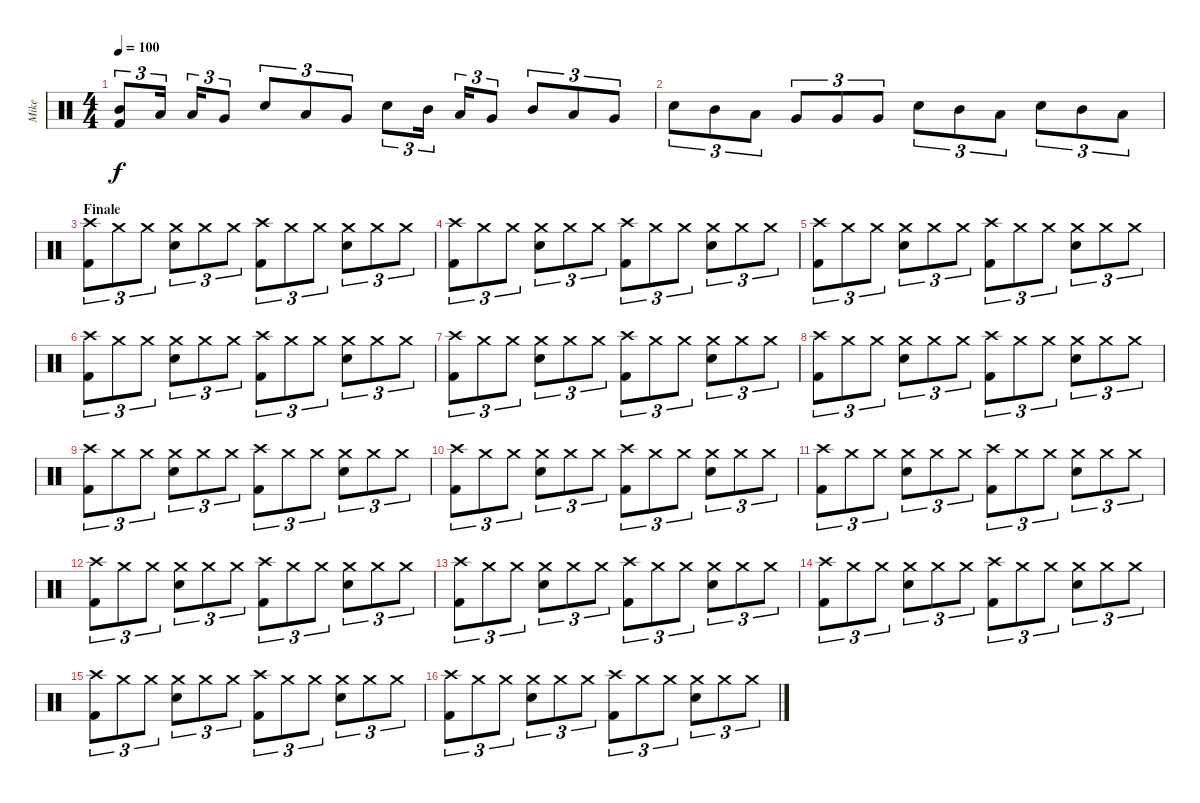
\track ("Mike" "Mike") {instrument percussion}
\staff {score}
\articulation defaults
\ts (4 4)
\tempo 100
\clef neutral
\ks c
("Mid Tom (hit)" "Kick (hit) 2").8{tu (3 2) dy f} "Low Tom (hit)".16{tu (3 2)} "Low Tom (hit)".16{tu (3 2)} "Very Low Tom (hit)".8{tu (3 2)} "Electric Snare (hit)".8{tu (3 2)} "Low Tom (hit)".8{tu (3 2)} "Very Low Tom (hit)".8{tu (3 2)} "Electric Snare (hit)".8{tu (3 2)} "Mid Tom (hit)".16{tu (3 2)} "Low Tom (hit)".16{tu (3 2)} "Very Low Tom (hit)".8{tu (3 2)} "Mid Tom (hit)".8{tu (3 2)} "Low Tom (hit)".8{tu (3 2)} "Very Low Tom (hit)".8{tu (3 2)} |
"Electric Snare (hit)".8{tu (3 2)} "Mid Tom (hit)".8{tu (3 2)} "Low Tom (hit)".8{tu (3 2)} "Very Low Tom (hit)".8{tu (3 2)} "Very Low Tom (hit)".8{tu (3 2)} "Very Low Tom (hit)".8{tu (3 2)} "Electric Snare (hit)".8{tu (3 2)} "Mid Tom (hit)".8{tu (3 2)} "Low Tom (hit)".8{tu (3 2)} "Electric Snare (hit)".8{tu (3 2)} "Mid Tom (hit)".8{tu (3 2)} "Low Tom (hit)".8{tu (3 2)} |
\section ("" "Finale")
("Crash high (hit)" "Kick (hit) 2").8{tu (3 2)} "Crash medium (hit)".8{tu (3 2)} "Crash medium (hit)".8{tu (3 2)} ("Crash medium (hit)" "Electric Snare (hit)").8{tu (3 2)} "Crash medium (hit)".8{tu (3 2)} "Crash medium (hit)".8{tu (3 2)} ("Crash high (hit)" "Kick (hit) 2").8{tu (3 2)} "Crash medium (hit)".8{tu (3 2)} "Crash medium (hit)".8{tu (3 2)} ("Crash medium (hit)" "Electric Snare (hit)").8{tu (3 2)} "Crash medium (hit)".8{tu (3 2)} "Crash medium (hit)".8{tu (3 2)} |
("Crash high (hit)" "Kick (hit) 2").8{tu (3 2)} "Crash medium (hit)".8{tu (3 2)} "Crash medium (hit)".8{tu (3 2)} ("Crash medium (hit)" "Electric Snare (hit)").8{tu (3 2)} "Crash medium (hit)".8{tu (3 2)} "Crash medium (hit)".8{tu (3 2)} ("Crash high (hit)" "Kick (hit) 2").8{tu (3 2)} "Crash medium (hit)".8{tu (3 2)} "Crash medium (hit)".8{tu (3 2)} ("Crash medium (hit)" "Electric Snare (hit)").8{tu (3 2)} "Crash medium (hit)".8{tu (3 2)} "Crash medium (hit)".8{tu (3 2)} |
("Crash high (hit)" "Kick (hit) 2").8{tu (3 2)} "Crash medium (hit)".8{tu (3 2)} "Crash medium (hit)".8{tu (3 2)} ("Crash medium (hit)" "Electric Snare (hit)").8{tu (3 2)} "Crash medium (hit)".8{tu (3 2)} "Crash medium (hit)".8{tu (3 2)} ("Crash high (hit)" "Kick (hit) 2").8{tu (3 2)} "Crash medium (hit)".8{tu (3 2)} "Crash medium (hit)".8{tu (3 2)} ("Crash medium (hit)" "Electric Snare (hit)").8{tu (3 2)} "Crash medium (hit)".8{tu (3 2)} "Crash medium (hit)".8{tu (3 2)} |
("Crash high (hit)" "Kick (hit) 2").8{tu (3 2)} "Crash medium (hit)".8{tu (3 2)} "Crash medium (hit)".8{tu (3 2)} ("Crash medium (hit)" "Electric Snare (hit)").8{tu (3 2)} "Crash medium (hit)".8{tu (3 2)} "Crash medium (hit)".8{tu (3 2)} ("Crash high (hit)" "Kick (hit) 2").8{tu (3 2)} "Crash medium (hit)".8{tu (3 2)} "Crash medium (hit)".8{tu (3 2)} ("Crash medium (hit)" "Electric Snare (hit)").8{tu (3 2)} "Crash medium (hit)".8{tu (3 2)} "Crash medium (hit)".8{tu (3 2)} |
("Crash high (hit)" "Kick (hit) 2").8{tu (3 2)} "Crash medium (hit)".8{tu (3 2)} "Crash medium (hit)".8{tu (3 2)} ("Crash medium (hit)" "Electric Snare (hit)").8{tu (3 2)} "Crash medium (hit)".8{tu (3 2)} "Crash medium (hit)".8{tu (3 2)} ("Crash high (hit)" "Kick (hit) 2").8{tu (3 2)} "Crash medium (hit)".8{tu (3 2)} "Crash medium (hit)".8{tu (3 2)} ("Crash medium (hit)" "Electric Snare (hit)").8{tu (3 2)} "Crash medium (hit)".8{tu (3 2)} "Crash medium (hit)".8{tu (3 2)} |
("Crash high (hit)" "Kick (hit) 2").8{tu (3 2)} "Crash medium (hit)".8{tu (3 2)} "Crash medium (hit)".8{tu (3 2)} ("Crash medium (hit)" "Electric Snare (hit)").8{tu (3 2)} "Crash medium (hit)".8{tu (3 2)} "Crash medium (hit)".8{tu (3 2)} ("Crash high (hit)" "Kick (hit) 2").8{tu (3 2)} "Crash medium (hit)".8{tu (3 2)} "Crash medium (hit)".8{tu (3 2)} ("Crash medium (hit)" "Electric Snare (hit)").8{tu (3 2)} "Crash medium (hit)".8{tu (3 2)} "Crash medium (hit)".8{tu (3 2)} |
("Crash high (hit)" "Kick (hit) 2").8{tu (3 2)} "Crash medium (hit)".8{tu (3 2)} "Crash medium (hit)".8{tu (3 2)} ("Crash medium (hit)" "Electric Snare (hit)").8{tu (3 2)} "Crash medium (hit)".8{tu (3 2)} "Crash medium (hit)".8{tu (3 2)} ("Crash high (hit)" "Kick (hit) 2").8{tu (3 2)} "Crash medium (hit)".8{tu (3 2)} "Crash medium (hit)".8{tu (3 2)} ("Crash medium (hit)" "Electric Snare (hit)").8{tu (3 2)} "Crash medium (hit)".8{tu (3 2)} "Crash medium (hit)".8{tu (3 2)} |
("Crash high (hit)" "Kick (hit) 2").8{tu (3 2)} "Crash medium (hit)".8{tu (3 2)} "Crash medium (hit)".8{tu (3 2)} ("Crash medium (hit)" "Electric Snare (hit)").8{tu (3 2)} "Crash medium (hit)".8{tu (3 2)} "Crash medium (hit)".8{tu (3 2)} ("Crash high (hit)" "Kick (hit) 2").8{tu (3 2)} "Crash medium (hit)".8{tu (3 2)} "Crash medium (hit)".8{tu (3 2)} ("Crash medium (hit)" "Electric Snare (hit)").8{tu (3 2)} "Crash medium (hit)".8{tu (3 2)} "Crash medium (hit)".8{tu (3 2)} |
("Crash high (hit)" "Kick (hit) 2").8{tu (3 2)} "Crash medium (hit)".8{tu (3 2)} "Crash medium (hit)".8{tu (3 2)} ("Crash medium (hit)" "Electric Snare (hit)").8{tu (3 2)} "Crash medium (hit)".8{tu (3 2)} "Crash medium (hit)".8{tu (3 2)} ("Crash high (hit)" "Kick (hit) 2").8{tu (3 2)} "Crash medium (hit)".8{tu (3 2)} "Crash medium (hit)".8{tu (3 2)} ("Crash medium (hit)" "Electric Snare (hit)").8{tu (3 2)} "Crash medium (hit)".8{tu (3 2)} "Crash medium (hit)".8{tu (3 2)} |
("Crash high (hit)" "Kick (hit) 2").8{tu (3 2)} "Crash medium (hit)".8{tu (3 2)} "Crash medium (hit)".8{tu (3 2)} ("Crash medium (hit)" "Electric Snare (hit)").8{tu (3 2)} "Crash medium (hit)".8{tu (3 2)} "Crash medium (hit)".8{tu (3 2)} ("Crash high (hit)" "Kick (hit) 2").8{tu (3 2)} "Crash medium (hit)".8{tu (3 2)} "Crash medium (hit)".8{tu (3 2)} ("Crash medium (hit)" "Electric Snare (hit)").8{tu (3 2)} "Crash medium (hit)".8{tu (3 2)} "Crash medium (hit)".8{tu (3 2)} |
("Crash high (hit)" "Kick (hit) 2").8{tu (3 2)} "Crash medium (hit)".8{tu (3 2)} "Crash medium (hit)".8{tu (3 2)} ("Crash medium (hit)" "Electric Snare (hit)").8{tu (3 2)} "Crash medium (hit)".8{tu (3 2)} "Crash medium (hit)".8{tu (3 2)} ("Crash high (hit)" "Kick (hit) 2").8{tu (3 2)} "Crash medium (hit)".8{tu (3 2)} "Crash medium (hit)".8{tu (3 2)} ("Crash medium (hit)" "Electric Snare (hit)").8{tu (3 2)} "Crash medium (hit)".8{tu (3 2)} "Crash medium (hit)".8{tu (3 2)} |
("Crash high (hit)" "Kick (hit) 2").8{tu (3 2)} "Crash medium (hit)".8{tu (3 2)} "Crash medium (hit)".8{tu (3 2)} ("Crash medium (hit)" "Electric Snare (hit)").8{tu (3 2)} "Crash medium (hit)".8{tu (3 2)} "Crash medium (hit)".8{tu (3 2)} ("Crash high (hit)" "Kick (hit) 2").8{tu (3 2)} "Crash medium (hit)".8{tu (3 2)} "Crash medium (hit)".8{tu (3 2)} ("Crash medium (hit)" "Electric Snare (hit)").8{tu (3 2)} "Crash medium (hit)".8{tu (3 2)} "Crash medium (hit)".8{tu (3 2)} |
("Crash high (hit)" "Kick (hit) 2").8{tu (3 2)} "Crash medium (hit)".8{tu (3 2)} "Crash medium (hit)".8{tu (3 2)} ("Crash medium (hit)" "Electric Snare (hit)").8{tu (3 2)} "Crash medium (hit)".8{tu (3 2)} "Crash medium (hit)".8{tu (3 2)} ("Crash high (hit)" "Kick (hit) 2").8{tu (3 2)} "Crash medium (hit)".8{tu (3 2)} "Crash medium (hit)".8{tu (3 2)} ("Crash medium (hit)" "Electric Snare (hit)").8{tu (3 2)} "Crash medium (hit)".8{tu (3 2)} "Crash medium (hit)".8{tu (3 2)} |
("Crash high (hit)" "Kick (hit) 2").8{tu (3 2)} "Crash medium (hit)".8{tu (3 2)} "Crash medium (hit)".8{tu (3 2)} ("Crash medium (hit)" "Electric Snare (hit)").8{tu (3 2)} "Crash medium (hit)".8{tu (3 2)} "Crash medium (hit)".8{tu (3 2)} ("Crash high (hit)" "Kick (hit) 2").8{tu (3 2)} "Crash medium (hit)".8{tu (3 2)} "Crash medium (hit)".8{tu (3 2)} ("Crash medium (hit)" "Electric Snare (hit)").8{tu (3 2)} "Crash medium (hit)".8{tu (3 2)} "Crash medium (hit)".8{tu (3 2)}
